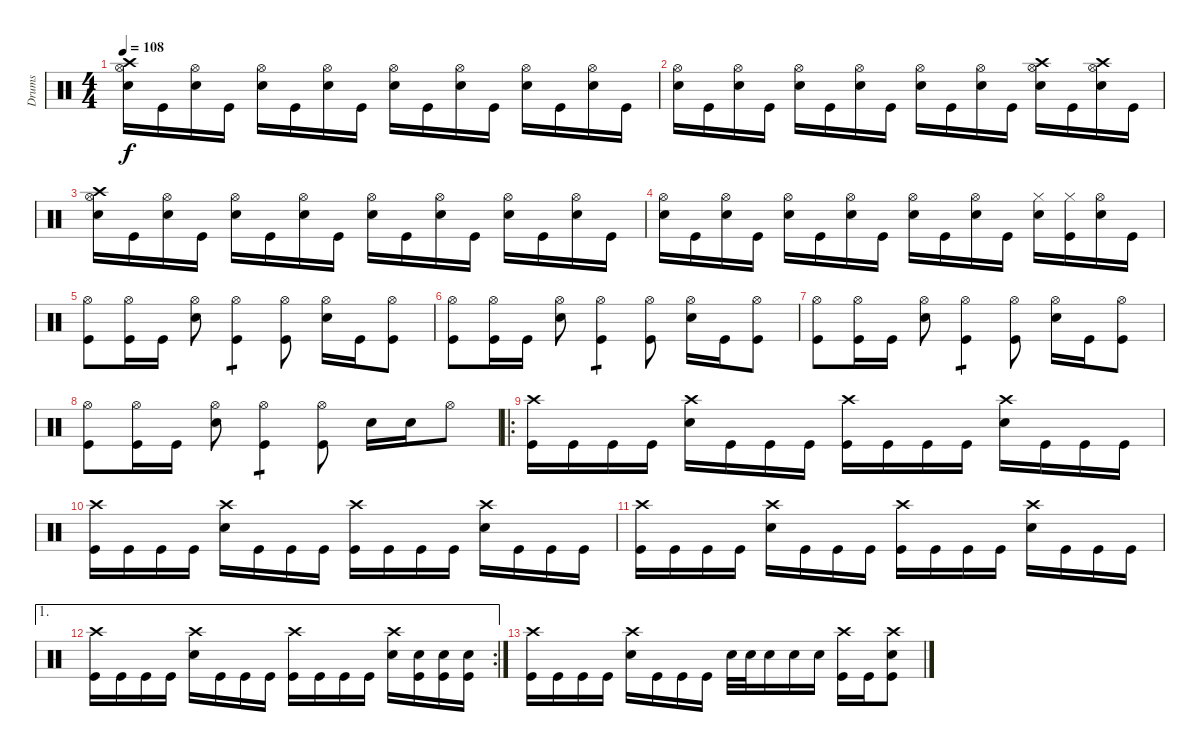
\track ("Drums" "Drums") {instrument percussion}
\staff {score}
\articulation defaults
\ts (4 4)
\tempo 108
\clef neutral
\ks c
("Crash high (hit)" "Hi-Hat (open)" "Snare (hit) 2").16{dy f} "Kick (hit)".16 ("Hi-Hat (open)" "Snare (hit) 2").16 "Kick (hit)".16 ("Hi-Hat (open)" "Snare (hit) 2").16 "Kick (hit)".16 ("Hi-Hat (open)" "Snare (hit) 2").16 "Kick (hit)".16 ("Hi-Hat (open)" "Snare (hit) 2").16 "Kick (hit)".16 ("Hi-Hat (open)" "Snare (hit) 2").16 "Kick (hit)".16 ("Hi-Hat (open)" "Snare (hit) 2").16 "Kick (hit)".16 ("Hi-Hat (open)" "Snare (hit) 2").16 "Kick (hit)".16 |
("Hi-Hat (open)" "Snare (hit) 2").16 "Kick (hit)".16 ("Hi-Hat (open)" "Snare (hit) 2").16 "Kick (hit)".16 ("Hi-Hat (open)" "Snare (hit) 2").16 "Kick (hit)".16 ("Hi-Hat (open)" "Snare (hit) 2").16 "Kick (hit)".16 ("Hi-Hat (open)" "Snare (hit) 2").16 "Kick (hit)".16 ("Hi-Hat (open)" "Snare (hit) 2").16 "Kick (hit)".16 ("Crash high (hit)" "Hi-Hat (open)" "Snare (hit) 2").16 "Kick (hit)".16 ("Crash high (hit)" "Hi-Hat (open)" "Snare (hit) 2").16 "Kick (hit)".16 |
("Crash high (hit)" "Hi-Hat (open)" "Snare (hit) 2").16 "Kick (hit)".16 ("Hi-Hat (open)" "Snare (hit) 2").16 "Kick (hit)".16 ("Hi-Hat (open)" "Snare (hit) 2").16 "Kick (hit)".16 ("Hi-Hat (open)" "Snare (hit) 2").16 "Kick (hit)".16 ("Hi-Hat (open)" "Snare (hit) 2").16 "Kick (hit)".16 ("Hi-Hat (open)" "Snare (hit) 2").16 "Kick (hit)".16 ("Hi-Hat (open)" "Snare (hit) 2").16 "Kick (hit)".16 ("Hi-Hat (open)" "Snare (hit) 2").16 "Kick (hit)".16 |
("Hi-Hat (open)" "Snare (hit) 2").16 "Kick (hit)".16 ("Hi-Hat (open)" "Snare (hit) 2").16 "Kick (hit)".16 ("Hi-Hat (open)" "Snare (hit) 2").16 "Kick (hit)".16 ("Hi-Hat (open)" "Snare (hit) 2").16 "Kick (hit)".16 ("Hi-Hat (open)" "Snare (hit) 2").16 "Kick (hit)".16 ("Hi-Hat (open)" "Snare (hit) 2").16 "Kick (hit)".16 ("Hi-Hat (closed)" "Snare (hit) 2").16 ("Hi-Hat (closed)" "Kick (hit)").16 ("Hi-Hat (open)" "Snare (hit) 2").16 "Kick (hit)".16 |
("Hi-Hat (open)" "Kick (hit)").8 ("Hi-Hat (open)" "Kick (hit)").16 "Kick (hit)".16 ("Hi-Hat (open)" "Snare (hit) 2").8 ("Hi-Hat (open)" "Kick (hit)").4{tp 1} ("Hi-Hat (open)" "Kick (hit)").8 ("Hi-Hat (open)" "Snare (hit) 2").16 "Kick (hit)".16 ("Hi-Hat (open)" "Kick (hit)").8 |
("Hi-Hat (open)" "Kick (hit)").8 ("Hi-Hat (open)" "Kick (hit)").16 "Kick (hit)".16 ("Hi-Hat (open)" "Snare (hit) 2").8 ("Hi-Hat (open)" "Kick (hit)").4{tp 1} ("Hi-Hat (open)" "Kick (hit)").8 ("Hi-Hat (open)" "Snare (hit) 2").16 "Kick (hit)".16 ("Hi-Hat (open)" "Kick (hit)").8 |
("Hi-Hat (open)" "Kick (hit)").8 ("Hi-Hat (open)" "Kick (hit)").16 "Kick (hit)".16 ("Hi-Hat (open)" "Snare (hit) 2").8 ("Hi-Hat (open)" "Kick (hit)").4{tp 1} ("Hi-Hat (open)" "Kick (hit)").8 ("Hi-Hat (open)" "Snare (hit) 2").16 "Kick (hit)".16 ("Hi-Hat (open)" "Kick (hit)").8 |
("Hi-Hat (open)" "Kick (hit)").8 ("Hi-Hat (open)" "Kick (hit)").16 "Kick (hit)".16 ("Hi-Hat (open)" "Snare (hit) 2").8 ("Hi-Hat (open)" "Kick (hit)").4{tp 1} ("Hi-Hat (open)" "Kick (hit)").8 "Snare (hit) 2".16 "Snare (hit) 2".16 "Hi-Hat (open)".8 |
\ro
("Crash high (hit)" "Kick (hit)").16 "Kick (hit)".16 "Kick (hit)".16 "Kick (hit)".16 ("Crash high (hit)" "Snare (hit) 2").16 "Kick (hit)".16 "Kick (hit)".16 "Kick (hit)".16 ("Crash high (hit)" "Kick (hit)").16 "Kick (hit)".16 "Kick (hit)".16 "Kick (hit)".16 ("Crash high (hit)" "Snare (hit) 2").16 "Kick (hit)".16 "Kick (hit)".16 "Kick (hit)".16 |
("Crash high (hit)" "Kick (hit)").16 "Kick (hit)".16 "Kick (hit)".16 "Kick (hit)".16 ("Crash high (hit)" "Snare (hit) 2").16 "Kick (hit)".16 "Kick (hit)".16 "Kick (hit)".16 ("Crash high (hit)" "Kick (hit)").16 "Kick (hit)".16 "Kick (hit)".16 "Kick (hit)".16 ("Crash high (hit)" "Snare (hit) 2").16 "Kick (hit)".16 "Kick (hit)".16 "Kick (hit)".16 |
("Crash high (hit)" "Kick (hit)").16 "Kick (hit)".16 "Kick (hit)".16 "Kick (hit)".16 ("Crash high (hit)" "Snare (hit) 2").16 "Kick (hit)".16 "Kick (hit)".16 "Kick (hit)".16 ("Crash high (hit)" "Kick (hit)").16 "Kick (hit)".16 "Kick (hit)".16 "Kick (hit)".16 ("Crash high (hit)" "Snare (hit) 2").16 "Kick (hit)".16 "Kick (hit)".16 "Kick (hit)".16 |
\ae 1
\rc 2
("Crash high (hit)" "Kick (hit)").16 "Kick (hit)".16 "Kick (hit)".16 "Kick (hit)".16 ("Crash high (hit)" "Snare (hit) 2").16 "Kick (hit)".16 "Kick (hit)".16 "Kick (hit)".16 ("Crash high (hit)" "Kick (hit)").16 "Kick (hit)".16 "Kick (hit)".16 "Kick (hit)".16 ("Crash high (hit)" "Snare (hit) 2").16 ("Snare (hit) 2" "Kick (hit)").16 ("Snare (hit) 2" "Kick (hit)").16 ("Snare (hit) 2" "Kick (hit)").16 |
("Crash high (hit)" "Kick (hit)").16 "Kick (hit)".16 "Kick (hit)".16 "Kick (hit)".16 ("Crash high (hit)" "Snare (hit) 2").16 "Kick (hit)".16 "Kick (hit)".16 "Kick (hit)".16 "Snare (hit) 2".32 "Snare (hit) 2".32 "Snare (hit) 2".16 "Snare (hit) 2".16 "Snare (hit) 2".16 ("Crash high (hit)" "Kick (hit)").16 "Kick (hit)".16 ("Crash high (hit)" "Snare (hit) 2" "Kick (hit)").8
